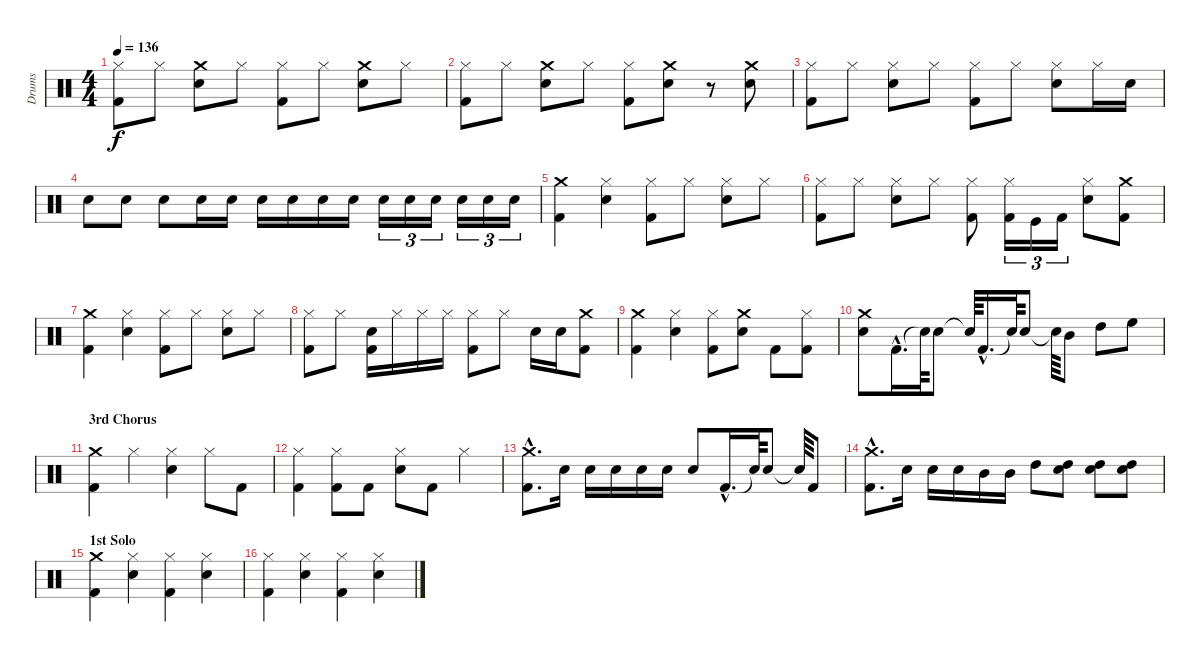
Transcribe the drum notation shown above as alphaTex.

\track ("Drums" "Drums") {instrument percussion}
\staff {score}
\articulation defaults
\ts (4 4)
\tempo 136
\clef neutral
\ks c
("Hi-Hat (closed)" "Kick (hit) 2").8{dy f} "Hi-Hat (closed)".8 ("Crash medium (hit)" "Snare (hit) 2").8 "Hi-Hat (closed)".8 ("Hi-Hat (closed)" "Kick (hit) 2").8 "Hi-Hat (closed)".8 ("Snare (hit) 2" "Crash medium (hit)").8 "Hi-Hat (closed)".8 |
("Hi-Hat (closed)" "Kick (hit) 2").8 "Hi-Hat (closed)".8 ("Crash medium (hit)" "Snare (hit) 2").8 "Hi-Hat (closed)".8 ("Hi-Hat (closed)" "Kick (hit) 2").8 ("Crash medium (hit)" "Snare (hit) 2").8 r.8 ("Crash medium (hit)" "Snare (hit) 2").8 |
("Kick (hit) 2" "Hi-Hat (closed)").8 "Hi-Hat (closed)".8 ("Snare (hit) 2" "Hi-Hat (closed)").8 "Hi-Hat (closed)".8 ("Kick (hit) 2" "Hi-Hat (closed)").8 "Hi-Hat (closed)".8 ("Snare (hit) 2" "Hi-Hat (closed)").8 "Hi-Hat (closed)".16 "Snare (hit) 2".16 |
"Snare (hit) 2".8 "Snare (hit) 2".8 "Snare (hit) 2".8 "Snare (hit) 2".16 "Snare (hit) 2".16 "Snare (hit) 2".16 "Snare (hit) 2".16 "Snare (hit) 2".16 "Snare (hit) 2".16 "Snare (hit) 2".16{tu (3 2)} "Snare (hit) 2".16{tu (3 2)} "Snare (hit) 2".16{tu (3 2)} "Snare (hit) 2".16{tu (3 2)} "Snare (hit) 2".16{tu (3 2)} "Snare (hit) 2".16{tu (3 2)} |
("Kick (hit) 2" "Crash medium (hit)").4 ("Hi-Hat (closed)" "Snare (hit) 2").4 ("Hi-Hat (closed)" "Kick (hit) 2").8 "Hi-Hat (closed)".8 ("Snare (hit) 2" "Hi-Hat (closed)").8 "Hi-Hat (closed)".8 |
("Kick (hit) 2" "Hi-Hat (closed)").8 "Hi-Hat (closed)".8 ("Snare (hit) 2" "Hi-Hat (closed)").8 "Hi-Hat (closed)".8 ("Kick (hit) 2" "Hi-Hat (closed)").8 ("Kick (hit) 2" "Hi-Hat (closed)").16{tu (3 2)} "Kick (hit)".16{tu (3 2)} "Kick (hit) 2".16{tu (3 2)} ("Snare (hit) 2" "Hi-Hat (closed)").8 ("Crash medium (hit)" "Kick (hit) 2").8 |
("Kick (hit) 2" "Crash medium (hit)").4 ("Hi-Hat (closed)" "Snare (hit) 2").4 ("Hi-Hat (closed)" "Kick (hit) 2").8 "Hi-Hat (closed)".8 ("Snare (hit) 2" "Hi-Hat (closed)").8 "Hi-Hat (closed)".8 |
("Kick (hit) 2" "Hi-Hat (closed)").8 "Hi-Hat (closed)".8 ("Kick (hit) 2" "Snare (hit) 2").16 "Hi-Hat (closed)".16 "Hi-Hat (closed)".16 "Hi-Hat (closed)".16 ("Hi-Hat (closed)" "Kick (hit) 2").8 "Hi-Hat (closed)".8 "Snare (hit) 2".16 "Snare (hit) 2".16 ("Crash medium (hit)" "Kick (hit) 2").8 |
("Crash medium (hit)" "Kick (hit) 2").4 ("Snare (hit) 2" "Hi-Hat (closed)").4 ("Kick (hit) 2" "Hi-Hat (closed)").8 ("Crash medium (hit)" "Snare (hit) 2").8 "Kick (hit) 2".8 ("Hi-Hat (closed)" "Kick (hit) 2").8 |
("Crash medium (hit)" "Snare (hit) 2").8 "Kick (hit) 2"{hac}.16{d} "Snare (hit)"{t}.64 "Snare (hit) 2".8 "Snare (hit)"{t}.64 "Kick (hit) 2"{hac}.16{d} "Snare (hit)"{t}.64 "Snare (hit) 2".8 "Snare (hit)"{t}.64 "Mid Tom (hit)".8 "High Tom (hit)".8 "High Floor Tom (hit)".8 |
\section ("" "3rd Chorus")
("Kick (hit) 2" "Crash medium (hit)").4 "Hi-Hat (closed)".4 ("Snare (hit) 2" "Hi-Hat (closed)").4 "Hi-Hat (closed)".8 "Kick (hit) 2".8 |
("Kick (hit) 2" "Hi-Hat (closed)").4 ("Kick (hit) 2" "Hi-Hat (closed)").8 "Kick (hit) 2".8 ("Snare (hit) 2" "Hi-Hat (closed)").8 "Kick (hit) 2".8 "Hi-Hat (closed)".4 |
("Kick (hit) 2"{hac} "Crash medium (hit)"{hac}).8{d} "Snare (hit) 2".16 "Snare (hit) 2".16 "Snare (hit) 2".16 "Snare (hit) 2".16 "Snare (hit) 2".16 "Snare (hit) 2".8 "Kick (hit) 2"{hac}.16{d} "Snare (hit)"{t}.64 "Snare (hit) 2".8 "Snare (hit)"{t}.64 "Kick (hit) 2".8 |
("Kick (hit) 2"{hac} "Crash medium (hit)"{hac}).8{d} "Snare (hit) 2".16 "Snare (hit) 2".16 "Snare (hit) 2".16 "Mid Tom (hit)".16 "Mid Tom (hit)".16 "High Tom (hit)".8 ("Snare (hit) 2" "High Tom (hit)").8 ("Snare (hit) 2" "High Tom (hit)").8 ("Snare (hit) 2" "High Tom (hit)").8 |
\section ("" "1st Solo")
("Kick (hit) 2" "Crash medium (hit)").4 ("Hi-Hat (closed)" "Snare (hit) 2").4 ("Hi-Hat (closed)" "Kick (hit) 2").4 ("Snare (hit) 2" "Hi-Hat (closed)").4 |
("Hi-Hat (closed)" "Kick (hit) 2").4 ("Snare (hit) 2" "Hi-Hat (closed)").4 ("Kick (hit) 2" "Hi-Hat (closed)").4 ("Snare (hit) 2" "Hi-Hat (closed)").4
